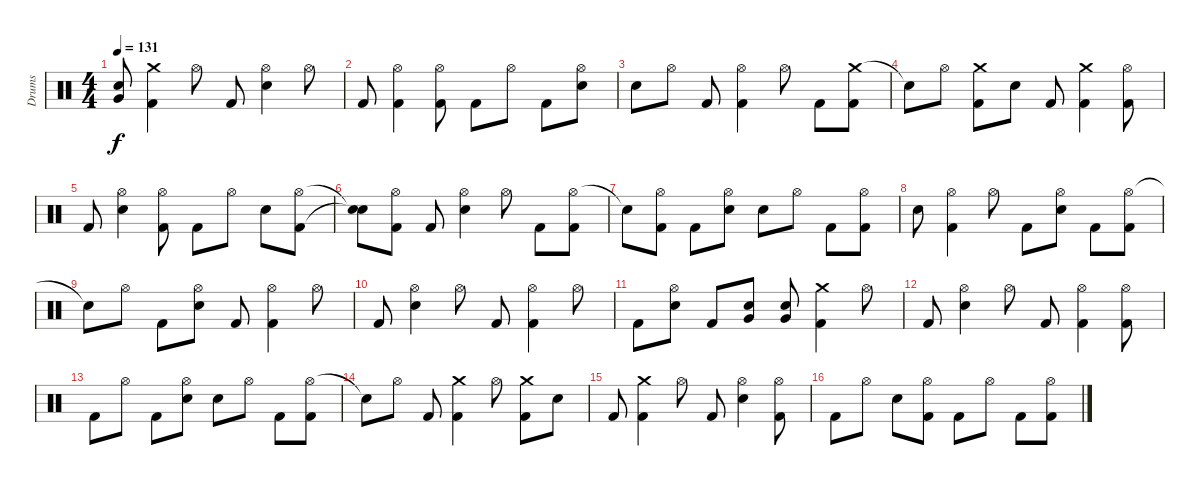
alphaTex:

\track ("Drums" "Drums") {instrument percussion}
\staff {score}
\articulation defaults
\ts (4 4)
\tempo 131
\clef neutral
\ks c
("Very Low Tom (hit)" "Electric Snare (hit)").8{dy f} ("Crash medium (hit)" "Kick (hit) 2").4 "Hi-Hat (open)".8 "Kick (hit) 2".8 ("Hi-Hat (open)" "Electric Snare (hit)").4 "Hi-Hat (open)".8 |
"Kick (hit) 2".8 ("Hi-Hat (open)" "Kick (hit) 2").4 ("Hi-Hat (open)" "Kick (hit) 2").8 "Kick (hit) 2".8 "Hi-Hat (open)".8 "Kick (hit) 2".8 ("Electric Snare (hit)" "Hi-Hat (open)").8 |
"Electric Snare (hit)".8 "Hi-Hat (open)".8 "Kick (hit) 2".8 ("Hi-Hat (open)" "Kick (hit) 2").4 "Hi-Hat (open)".8 "Kick (hit) 2".8 ("Crash medium (hit)" "Kick (hit) 2").8 |
"Snare (hit)"{t}.8 "Hi-Hat (open)".8 ("Crash medium (hit)" "Kick (hit) 2").8 "Electric Snare (hit)".8 "Kick (hit) 2".8 ("Kick (hit) 2" "Crash medium (hit)").4 ("Hi-Hat (open)" "Kick (hit) 2").8 |
"Kick (hit) 2".8 ("Hi-Hat (open)" "Electric Snare (hit)").4 ("Hi-Hat (open)" "Kick (hit) 2").8 "Kick (hit) 2".8 "Hi-Hat (open)".8 "Electric Snare (hit)".8 ("Hi-Hat (open)" "Kick (hit) 2").8 |
("Snare (hit)"{t} "Snare (hit)"{t}).8 ("Hi-Hat (open)" "Kick (hit) 2").8 "Kick (hit) 2".8 ("Hi-Hat (open)" "Electric Snare (hit)").4 "Hi-Hat (open)".8 "Kick (hit) 2".8 ("Hi-Hat (open)" "Kick (hit) 2").8 |
"Snare (hit)"{t}.8 ("Hi-Hat (open)" "Kick (hit) 2").8 "Kick (hit) 2".8 ("Hi-Hat (open)" "Electric Snare (hit)").8 "Electric Snare (hit)".8 "Hi-Hat (open)".8 "Kick (hit) 2".8 ("Hi-Hat (open)" "Kick (hit) 2").8 |
"Electric Snare (hit)".8 ("Hi-Hat (open)" "Kick (hit) 2").4 "Hi-Hat (open)".8 "Kick (hit) 2".8 ("Hi-Hat (open)" "Electric Snare (hit)").8 "Kick (hit) 2".8 ("Hi-Hat (open)" "Kick (hit) 2").8 |
"Snare (hit)"{t}.8 "Hi-Hat (open)".8 "Kick (hit) 2".8 ("Hi-Hat (open)" "Electric Snare (hit)").8 "Kick (hit) 2".8 ("Hi-Hat (open)" "Kick (hit) 2").4 "Hi-Hat (open)".8 |
"Kick (hit) 2".8 ("Hi-Hat (open)" "Electric Snare (hit)").4 "Hi-Hat (open)".8 "Kick (hit) 2".8 ("Hi-Hat (open)" "Kick (hit) 2").4 "Hi-Hat (open)".8 |
"Kick (hit) 2".8 ("Hi-Hat (open)" "Electric Snare (hit)").8 "Kick (hit) 2".8 ("Very Low Tom (hit)" "Electric Snare (hit)").8 ("Very Low Tom (hit)" "Electric Snare (hit)").8 ("Crash medium (hit)" "Kick (hit) 2").4 "Hi-Hat (open)".8 |
"Kick (hit) 2".8 ("Hi-Hat (open)" "Electric Snare (hit)").4 "Hi-Hat (open)".8 "Kick (hit) 2".8 ("Hi-Hat (open)" "Kick (hit) 2").4 ("Hi-Hat (open)" "Kick (hit) 2").8 |
"Kick (hit) 2".8 "Hi-Hat (open)".8 "Kick (hit) 2".8 ("Electric Snare (hit)" "Hi-Hat (open)").8 "Electric Snare (hit)".8 "Hi-Hat (open)".8 "Kick (hit) 2".8 ("Hi-Hat (open)" "Kick (hit) 2").8 |
"Snare (hit)"{t}.8 "Hi-Hat (open)".8 "Kick (hit) 2".8 ("Crash medium (hit)" "Kick (hit) 2").4 "Hi-Hat (open)".8 ("Crash medium (hit)" "Kick (hit) 2").8 "Electric Snare (hit)".8 |
"Kick (hit) 2".8 ("Crash medium (hit)" "Kick (hit) 2").4 "Hi-Hat (open)".8 "Kick (hit) 2".8 ("Hi-Hat (open)" "Electric Snare (hit)").4 ("Hi-Hat (open)" "Kick (hit) 2").8 |
"Kick (hit) 2".8 "Hi-Hat (open)".8 "Electric Snare (hit)".8 ("Hi-Hat (open)" "Kick (hit) 2").8 "Kick (hit) 2".8 "Hi-Hat (open)".8 "Kick (hit) 2".8 ("Hi-Hat (open)" "Kick (hit) 2").8
